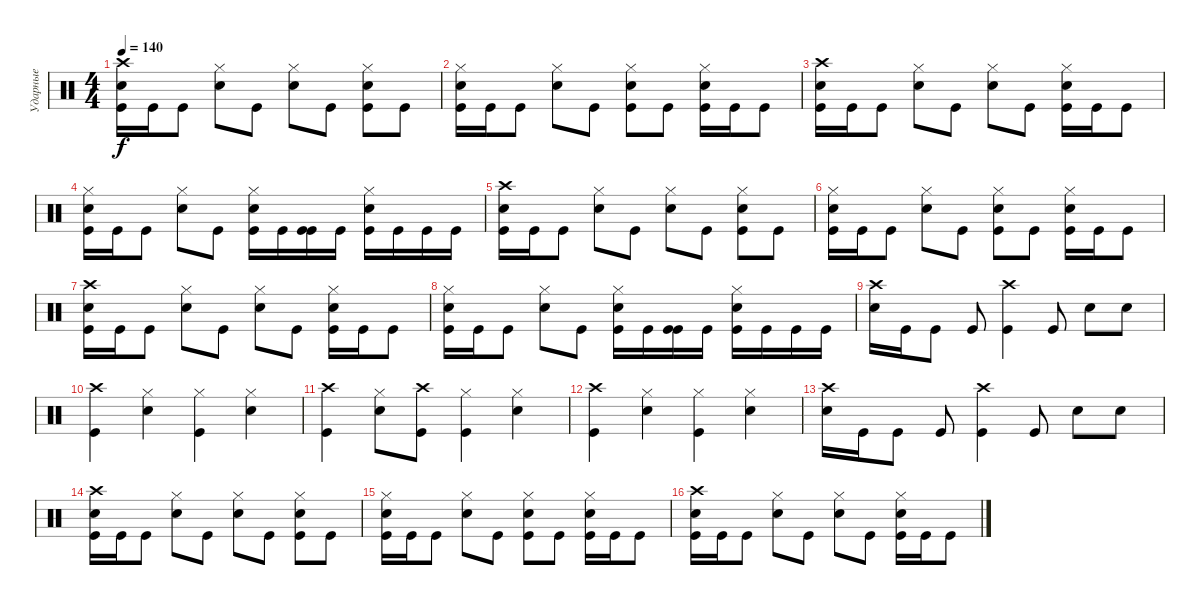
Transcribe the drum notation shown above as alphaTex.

\track ("Ударные" "Ударные") {instrument percussion}
\staff {score}
\articulation defaults
\ts (4 4)
\tempo 140
\clef neutral
\ks c
("Crash high (hit)" "Electric Snare (hit)" "Kick (hit)").16{dy f} "Kick (hit)".16 "Kick (hit)".8 ("Hi-Hat (closed)" "Electric Snare (hit)").8 "Kick (hit)".8 ("Hi-Hat (closed)" "Electric Snare (hit)").8 "Kick (hit)".8 ("Hi-Hat (closed)" "Electric Snare (hit)" "Kick (hit)").8 "Kick (hit)".8 |
("Hi-Hat (closed)" "Electric Snare (hit)" "Kick (hit)").16 "Kick (hit)".16 "Kick (hit)".8 ("Hi-Hat (closed)" "Electric Snare (hit)").8 "Kick (hit)".8 ("Hi-Hat (closed)" "Electric Snare (hit)" "Kick (hit)").8 "Kick (hit)".8 ("Hi-Hat (closed)" "Electric Snare (hit)" "Kick (hit)").16 "Kick (hit)".16 "Kick (hit)".8 |
("Crash high (hit)" "Electric Snare (hit)" "Kick (hit)").16 "Kick (hit)".16 "Kick (hit)".8 ("Hi-Hat (closed)" "Electric Snare (hit)").8 "Kick (hit)".8 ("Hi-Hat (closed)" "Electric Snare (hit)").8 "Kick (hit)".8 ("Hi-Hat (closed)" "Electric Snare (hit)" "Kick (hit)").16 "Kick (hit)".16 "Kick (hit)".8 |
("Hi-Hat (closed)" "Electric Snare (hit)" "Kick (hit)").16 "Kick (hit)".16 "Kick (hit)".8 ("Hi-Hat (closed)" "Electric Snare (hit)").8 "Kick (hit)".8 ("Hi-Hat (closed)" "Electric Snare (hit)" "Kick (hit)").16 "Kick (hit)".16 ("Kick (hit)" "Kick (hit)").16 "Kick (hit)".16 ("Hi-Hat (closed)" "Electric Snare (hit)" "Kick (hit)").16 "Kick (hit)".16 "Kick (hit)".16 "Kick (hit)".16 |
("Crash high (hit)" "Electric Snare (hit)" "Kick (hit)").16 "Kick (hit)".16 "Kick (hit)".8 ("Hi-Hat (closed)" "Electric Snare (hit)").8 "Kick (hit)".8 ("Hi-Hat (closed)" "Electric Snare (hit)").8 "Kick (hit)".8 ("Hi-Hat (closed)" "Electric Snare (hit)" "Kick (hit)").8 "Kick (hit)".8 |
("Hi-Hat (closed)" "Electric Snare (hit)" "Kick (hit)").16 "Kick (hit)".16 "Kick (hit)".8 ("Hi-Hat (closed)" "Electric Snare (hit)").8 "Kick (hit)".8 ("Hi-Hat (closed)" "Electric Snare (hit)" "Kick (hit)").8 "Kick (hit)".8 ("Hi-Hat (closed)" "Electric Snare (hit)" "Kick (hit)").16 "Kick (hit)".16 "Kick (hit)".8 |
("Crash high (hit)" "Electric Snare (hit)" "Kick (hit)").16 "Kick (hit)".16 "Kick (hit)".8 ("Hi-Hat (closed)" "Electric Snare (hit)").8 "Kick (hit)".8 ("Hi-Hat (closed)" "Electric Snare (hit)").8 "Kick (hit)".8 ("Hi-Hat (closed)" "Electric Snare (hit)" "Kick (hit)").16 "Kick (hit)".16 "Kick (hit)".8 |
("Hi-Hat (closed)" "Electric Snare (hit)" "Kick (hit)").16 "Kick (hit)".16 "Kick (hit)".8 ("Hi-Hat (closed)" "Electric Snare (hit)").8 "Kick (hit)".8 ("Hi-Hat (closed)" "Electric Snare (hit)" "Kick (hit)").16 "Kick (hit)".16 ("Kick (hit)" "Kick (hit)").16 "Kick (hit)".16 ("Hi-Hat (closed)" "Electric Snare (hit)" "Kick (hit)").16 "Kick (hit)".16 "Kick (hit)".16 "Kick (hit)".16 |
("Crash high (hit)" "Electric Snare (hit)").16 "Kick (hit)".16 "Kick (hit)".8 "Kick (hit)".8 ("Crash high (hit)" "Kick (hit)").4 "Kick (hit)".8 "Electric Snare (hit)".8 "Electric Snare (hit)".8 |
("Crash high (hit)" "Kick (hit)").4 ("Hi-Hat (closed)" "Electric Snare (hit)").4 ("Hi-Hat (closed)" "Kick (hit)").4 ("Hi-Hat (closed)" "Electric Snare (hit)").4 |
("Crash high (hit)" "Kick (hit)").4 ("Hi-Hat (closed)" "Electric Snare (hit)").8 ("Crash high (hit)" "Kick (hit)").8 ("Hi-Hat (closed)" "Kick (hit)").4 ("Hi-Hat (closed)" "Electric Snare (hit)").4 |
("Crash high (hit)" "Kick (hit)").4 ("Hi-Hat (closed)" "Electric Snare (hit)").4 ("Hi-Hat (closed)" "Kick (hit)").4 ("Hi-Hat (closed)" "Electric Snare (hit)").4 |
("Crash high (hit)" "Electric Snare (hit)").16 "Kick (hit)".16 "Kick (hit)".8 "Kick (hit)".8 ("Crash high (hit)" "Kick (hit)").4 "Kick (hit)".8 "Electric Snare (hit)".8 "Electric Snare (hit)".8 |
("Crash high (hit)" "Electric Snare (hit)" "Kick (hit)").16 "Kick (hit)".16 "Kick (hit)".8 ("Hi-Hat (closed)" "Electric Snare (hit)").8 "Kick (hit)".8 ("Hi-Hat (closed)" "Electric Snare (hit)").8 "Kick (hit)".8 ("Hi-Hat (closed)" "Electric Snare (hit)" "Kick (hit)").8 "Kick (hit)".8 |
("Hi-Hat (closed)" "Electric Snare (hit)" "Kick (hit)").16 "Kick (hit)".16 "Kick (hit)".8 ("Hi-Hat (closed)" "Electric Snare (hit)").8 "Kick (hit)".8 ("Hi-Hat (closed)" "Electric Snare (hit)" "Kick (hit)").8 "Kick (hit)".8 ("Hi-Hat (closed)" "Electric Snare (hit)" "Kick (hit)").16 "Kick (hit)".16 "Kick (hit)".8 |
("Crash high (hit)" "Electric Snare (hit)" "Kick (hit)").16 "Kick (hit)".16 "Kick (hit)".8 ("Hi-Hat (closed)" "Electric Snare (hit)").8 "Kick (hit)".8 ("Hi-Hat (closed)" "Electric Snare (hit)").8 "Kick (hit)".8 ("Hi-Hat (closed)" "Electric Snare (hit)" "Kick (hit)").16 "Kick (hit)".16 "Kick (hit)".8
